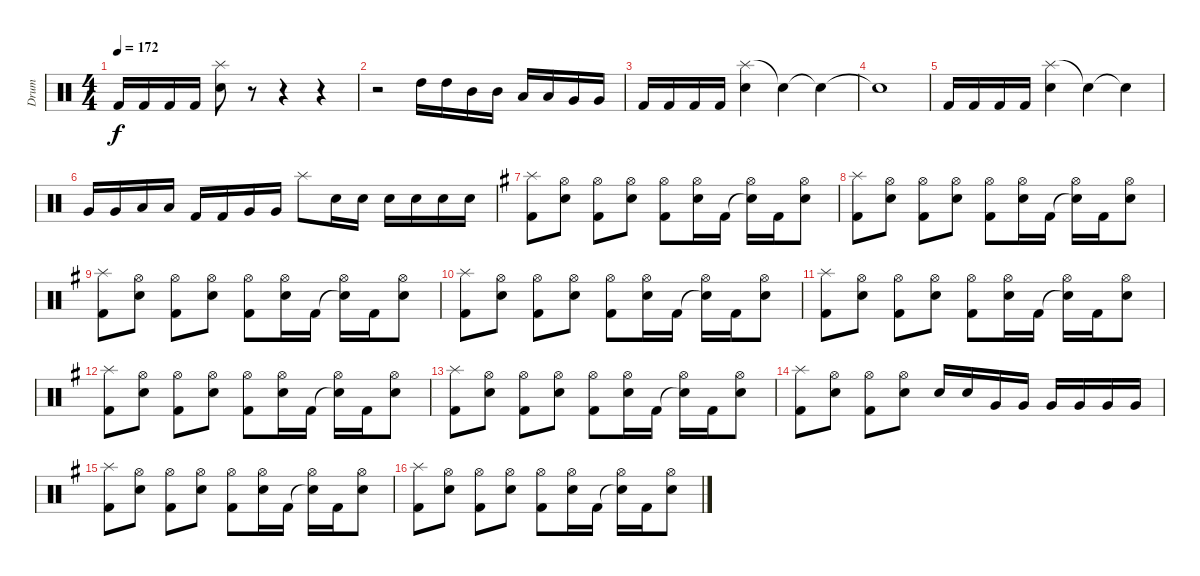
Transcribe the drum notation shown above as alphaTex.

\track ("Drum" "Drum") {instrument percussion}
\staff {score}
\articulation defaults
\ts (4 4)
\tempo 172
\clef neutral
\ks c "Kick (hit) 2".16{dy f} "Kick (hit) 2".16 "Kick (hit) 2".16 "Kick (hit) 2".16
("Splash (hit)" "Electric Snare (hit)").8 r.8 r.4 r.4 |
r.2 "High Tom (hit)".16 "High Tom (hit)".16 "Mid Tom (hit)".16 "Mid Tom (hit)".16 "Low Tom (hit)".16 "Low Tom (hit)".16 "Very Low Tom (hit)".16 "Very Low Tom (hit)".16 |
"Kick (hit) 2".16 "Kick (hit) 2".16 "Kick (hit) 2".16 "Kick (hit) 2".16 ("Splash (hit)" "Electric Snare (hit)").4 "Snare (hit)"{t}.4 "Snare (hit)"{t}.4 |
"Snare (hit)"{t}.1 |
"Kick (hit) 2".16 "Kick (hit) 2".16 "Kick (hit) 2".16 "Kick (hit) 2".16 ("Splash (hit)" "Electric Snare (hit)").4 "Snare (hit)"{t}.4 "Snare (hit)"{t}.4 |
"Very Low Tom (hit)".16 "Very Low Tom (hit)".16 "Low Floor Tom (hit)".16 "Low Floor Tom (hit)".16 "Kick (hit) 2".16 "Kick (hit) 2".16 "Very Low Tom (hit)".16 "Very Low Tom (hit)".16 "Splash (hit)".8 "Electric Snare (hit)".16 "Electric Snare (hit)".16 "Electric Snare (hit)".16 "Electric Snare (hit)".16 "Electric Snare (hit)".16 "Electric Snare (hit)".16 |
\ks eminor
("Kick (hit) 2" "Splash (hit)").8 ("Electric Snare (hit)" "Hi-Hat (open)").8 ("Kick (hit) 2" "Hi-Hat (open)").8 ("Electric Snare (hit)" "Hi-Hat (open)").8 ("Kick (hit) 2" "Hi-Hat (open)").8 ("Electric Snare (hit)" "Hi-Hat (open)").16 "Kick (hit) 2".16 ("Snare (hit)"{t} "Hi-Hat (open)").16 "Kick (hit) 2".16 ("Electric Snare (hit)" "Hi-Hat (open)").8 |
("Kick (hit) 2" "Splash (hit)").8 ("Electric Snare (hit)" "Hi-Hat (open)").8 ("Kick (hit) 2" "Hi-Hat (open)").8 ("Electric Snare (hit)" "Hi-Hat (open)").8 ("Kick (hit) 2" "Hi-Hat (open)").8 ("Electric Snare (hit)" "Hi-Hat (open)").16 "Kick (hit) 2".16 ("Snare (hit)"{t} "Hi-Hat (open)").16 "Kick (hit) 2".16 ("Electric Snare (hit)" "Hi-Hat (open)").8 |
("Kick (hit) 2" "Splash (hit)").8 ("Electric Snare (hit)" "Hi-Hat (open)").8 ("Kick (hit) 2" "Hi-Hat (open)").8 ("Electric Snare (hit)" "Hi-Hat (open)").8 ("Kick (hit) 2" "Hi-Hat (open)").8 ("Electric Snare (hit)" "Hi-Hat (open)").16 "Kick (hit) 2".16 ("Snare (hit)"{t} "Hi-Hat (open)").16 "Kick (hit) 2".16 ("Electric Snare (hit)" "Hi-Hat (open)").8 |
("Kick (hit) 2" "Splash (hit)").8 ("Electric Snare (hit)" "Hi-Hat (open)").8 ("Kick (hit) 2" "Hi-Hat (open)").8 ("Electric Snare (hit)" "Hi-Hat (open)").8 ("Kick (hit) 2" "Hi-Hat (open)").8 ("Electric Snare (hit)" "Hi-Hat (open)").16 "Kick (hit) 2".16 ("Snare (hit)"{t} "Hi-Hat (open)").16 "Kick (hit) 2".16 ("Electric Snare (hit)" "Hi-Hat (open)").8 |
("Kick (hit) 2" "Splash (hit)").8 ("Electric Snare (hit)" "Hi-Hat (open)").8 ("Kick (hit) 2" "Hi-Hat (open)").8 ("Electric Snare (hit)" "Hi-Hat (open)").8 ("Kick (hit) 2" "Hi-Hat (open)").8 ("Electric Snare (hit)" "Hi-Hat (open)").16 "Kick (hit) 2".16 ("Snare (hit)"{t} "Hi-Hat (open)").16 "Kick (hit) 2".16 ("Electric Snare (hit)" "Hi-Hat (open)").8 |
("Kick (hit) 2" "Splash (hit)").8 ("Electric Snare (hit)" "Hi-Hat (open)").8 ("Kick (hit) 2" "Hi-Hat (open)").8 ("Electric Snare (hit)" "Hi-Hat (open)").8 ("Kick (hit) 2" "Hi-Hat (open)").8 ("Electric Snare (hit)" "Hi-Hat (open)").16 "Kick (hit) 2".16 ("Snare (hit)"{t} "Hi-Hat (open)").16 "Kick (hit) 2".16 ("Electric Snare (hit)" "Hi-Hat (open)").8 |
("Kick (hit) 2" "Splash (hit)").8 ("Electric Snare (hit)" "Hi-Hat (open)").8 ("Kick (hit) 2" "Hi-Hat (open)").8 ("Electric Snare (hit)" "Hi-Hat (open)").8 ("Kick (hit) 2" "Hi-Hat (open)").8 ("Electric Snare (hit)" "Hi-Hat (open)").16 "Kick (hit) 2".16 ("Snare (hit)"{t} "Hi-Hat (open)").16 "Kick (hit) 2".16 ("Electric Snare (hit)" "Hi-Hat (open)").8 |
("Kick (hit) 2" "Splash (hit)").8 ("Electric Snare (hit)" "Hi-Hat (open)").8 ("Kick (hit) 2" "Hi-Hat (open)").8 ("Electric Snare (hit)" "Hi-Hat (open)").8 "Electric Snare (hit)".16 "Electric Snare (hit)".16 "Very Low Tom (hit)".16 "Very Low Tom (hit)".16 "Very Low Tom (hit)".16 "Very Low Tom (hit)".16 "Very Low Tom (hit)".16 "Very Low Tom (hit)".16 |
("Kick (hit) 2" "Splash (hit)").8 ("Electric Snare (hit)" "Hi-Hat (open)").8 ("Kick (hit) 2" "Hi-Hat (open)").8 ("Electric Snare (hit)" "Hi-Hat (open)").8 ("Kick (hit) 2" "Hi-Hat (open)").8 ("Electric Snare (hit)" "Hi-Hat (open)").16 "Kick (hit) 2".16 ("Snare (hit)"{t} "Hi-Hat (open)").16 "Kick (hit) 2".16 ("Electric Snare (hit)" "Hi-Hat (open)").8 |
("Kick (hit) 2" "Splash (hit)").8 ("Electric Snare (hit)" "Hi-Hat (open)").8 ("Kick (hit) 2" "Hi-Hat (open)").8 ("Electric Snare (hit)" "Hi-Hat (open)").8 ("Kick (hit) 2" "Hi-Hat (open)").8 ("Electric Snare (hit)" "Hi-Hat (open)").16 "Kick (hit) 2".16 ("Snare (hit)"{t} "Hi-Hat (open)").16 "Kick (hit) 2".16 ("Electric Snare (hit)" "Hi-Hat (open)").8
